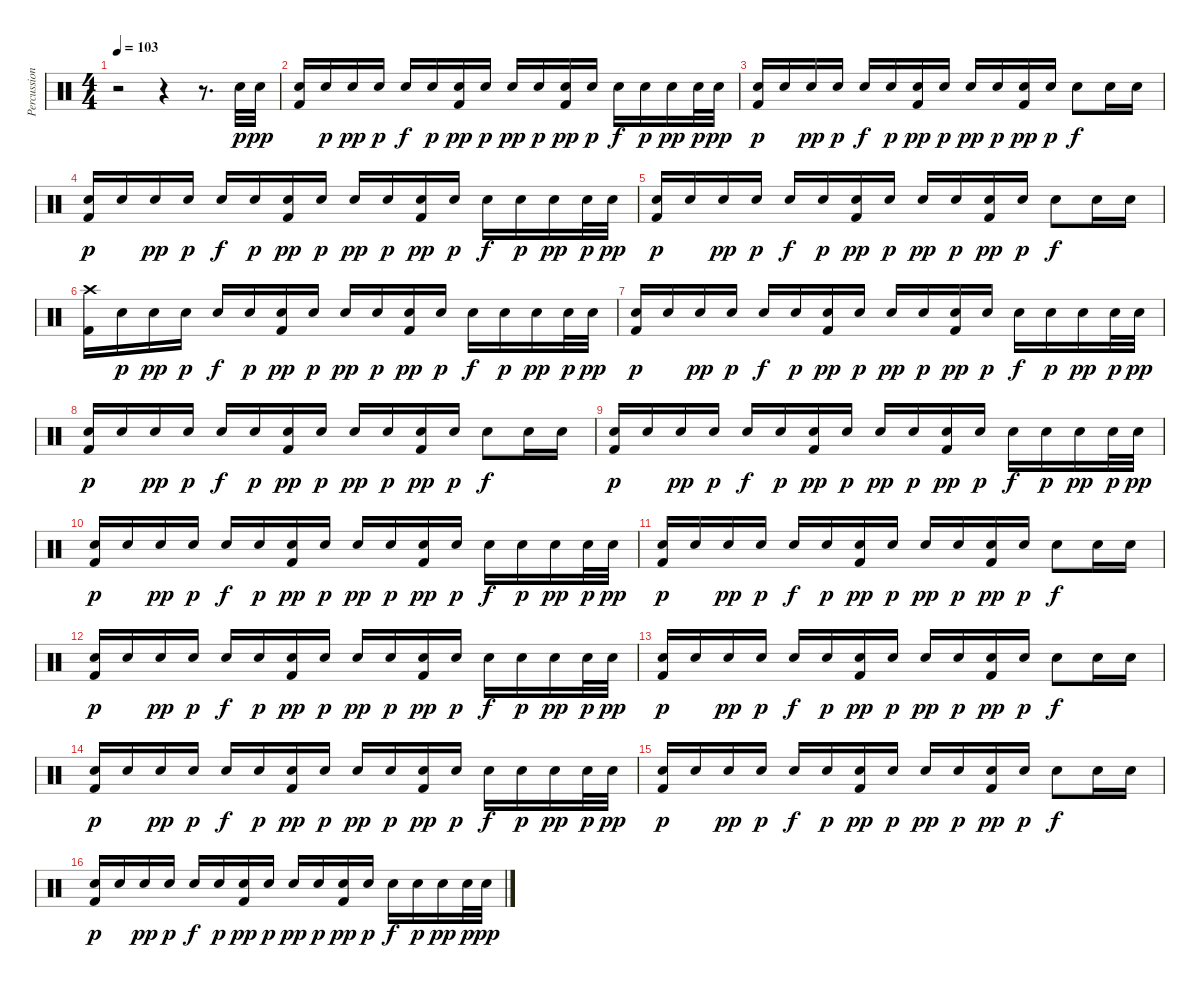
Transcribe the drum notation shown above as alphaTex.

\track ("Percussion" "Percussion") {instrument percussion}
\staff {score}
\articulation defaults
\ts (4 4)
\tempo 103
\clef neutral
\ks c
r.2{dy p} r.4 r.8{d} "Electric Snare (hit)".32 "Electric Snare (hit)".32{dy pp} |
("Electric Snare (hit)" "Kick (hit) 2").16 "Electric Snare (hit)".16{dy p} "Electric Snare (hit)".16{dy pp} "Electric Snare (hit)".16{dy p} "Electric Snare (hit)".16{dy f} "Electric Snare (hit)".16{dy p} ("Electric Snare (hit)" "Kick (hit) 2").16{dy pp} "Electric Snare (hit)".16{dy p} "Electric Snare (hit)".16{dy pp} "Electric Snare (hit)".16{dy p} ("Electric Snare (hit)" "Kick (hit) 2").16{dy pp} "Electric Snare (hit)".16{dy p} "Electric Snare (hit)".16{dy f} "Electric Snare (hit)".16{dy p} "Electric Snare (hit)".16{dy pp} "Electric Snare (hit)".32{dy p} "Electric Snare (hit)".32{dy pp} |
("Electric Snare (hit)" "Kick (hit) 2").16{dy p} "Electric Snare (hit)".16 "Electric Snare (hit)".16{dy pp} "Electric Snare (hit)".16{dy p} "Electric Snare (hit)".16{dy f} "Electric Snare (hit)".16{dy p} ("Electric Snare (hit)" "Kick (hit) 2").16{dy pp} "Electric Snare (hit)".16{dy p} "Electric Snare (hit)".16{dy pp} "Electric Snare (hit)".16{dy p} ("Electric Snare (hit)" "Kick (hit) 2").16{dy pp} "Electric Snare (hit)".16{dy p} "Electric Snare (hit)".8{dy f} "Electric Snare (hit)".16 "Electric Snare (hit)".16 |
("Electric Snare (hit)" "Kick (hit) 2").16{dy p} "Electric Snare (hit)".16 "Electric Snare (hit)".16{dy pp} "Electric Snare (hit)".16{dy p} "Electric Snare (hit)".16{dy f} "Electric Snare (hit)".16{dy p} ("Electric Snare (hit)" "Kick (hit) 2").16{dy pp} "Electric Snare (hit)".16{dy p} "Electric Snare (hit)".16{dy pp} "Electric Snare (hit)".16{dy p} ("Electric Snare (hit)" "Kick (hit) 2").16{dy pp} "Electric Snare (hit)".16{dy p} "Electric Snare (hit)".16{dy f} "Electric Snare (hit)".16{dy p} "Electric Snare (hit)".16{dy pp} "Electric Snare (hit)".32{dy p} "Electric Snare (hit)".32{dy pp} |
("Electric Snare (hit)" "Kick (hit) 2").16{dy p} "Electric Snare (hit)".16 "Electric Snare (hit)".16{dy pp} "Electric Snare (hit)".16{dy p} "Electric Snare (hit)".16{dy f} "Electric Snare (hit)".16{dy p} ("Electric Snare (hit)" "Kick (hit) 2").16{dy pp} "Electric Snare (hit)".16{dy p} "Electric Snare (hit)".16{dy pp} "Electric Snare (hit)".16{dy p} ("Electric Snare (hit)" "Kick (hit) 2").16{dy pp} "Electric Snare (hit)".16{dy p} "Electric Snare (hit)".8{dy f} "Electric Snare (hit)".16 "Electric Snare (hit)".16 |
("Crash high (hit)" "Kick (hit) 2").16 "Electric Snare (hit)".16{dy p} "Electric Snare (hit)".16{dy pp} "Electric Snare (hit)".16{dy p} "Electric Snare (hit)".16{dy f} "Electric Snare (hit)".16{dy p} ("Electric Snare (hit)" "Kick (hit) 2").16{dy pp} "Electric Snare (hit)".16{dy p} "Electric Snare (hit)".16{dy pp} "Electric Snare (hit)".16{dy p} ("Electric Snare (hit)" "Kick (hit) 2").16{dy pp} "Electric Snare (hit)".16{dy p} "Electric Snare (hit)".16{dy f} "Electric Snare (hit)".16{dy p} "Electric Snare (hit)".16{dy pp} "Electric Snare (hit)".32{dy p} "Electric Snare (hit)".32{dy pp} |
("Electric Snare (hit)" "Kick (hit) 2").16{dy p} "Electric Snare (hit)".16 "Electric Snare (hit)".16{dy pp} "Electric Snare (hit)".16{dy p} "Electric Snare (hit)".16{dy f} "Electric Snare (hit)".16{dy p} ("Electric Snare (hit)" "Kick (hit) 2").16{dy pp} "Electric Snare (hit)".16{dy p} "Electric Snare (hit)".16{dy pp} "Electric Snare (hit)".16{dy p} ("Electric Snare (hit)" "Kick (hit) 2").16{dy pp} "Electric Snare (hit)".16{dy p} "Electric Snare (hit)".16{dy f} "Electric Snare (hit)".16{dy p} "Electric Snare (hit)".16{dy pp} "Electric Snare (hit)".32{dy p} "Electric Snare (hit)".32{dy pp} |
("Electric Snare (hit)" "Kick (hit) 2").16{dy p} "Electric Snare (hit)".16 "Electric Snare (hit)".16{dy pp} "Electric Snare (hit)".16{dy p} "Electric Snare (hit)".16{dy f} "Electric Snare (hit)".16{dy p} ("Electric Snare (hit)" "Kick (hit) 2").16{dy pp} "Electric Snare (hit)".16{dy p} "Electric Snare (hit)".16{dy pp} "Electric Snare (hit)".16{dy p} ("Electric Snare (hit)" "Kick (hit) 2").16{dy pp} "Electric Snare (hit)".16{dy p} "Electric Snare (hit)".8{dy f} "Electric Snare (hit)".16 "Electric Snare (hit)".16 |
("Electric Snare (hit)" "Kick (hit) 2").16{dy p} "Electric Snare (hit)".16 "Electric Snare (hit)".16{dy pp} "Electric Snare (hit)".16{dy p} "Electric Snare (hit)".16{dy f} "Electric Snare (hit)".16{dy p} ("Electric Snare (hit)" "Kick (hit) 2").16{dy pp} "Electric Snare (hit)".16{dy p} "Electric Snare (hit)".16{dy pp} "Electric Snare (hit)".16{dy p} ("Electric Snare (hit)" "Kick (hit) 2").16{dy pp} "Electric Snare (hit)".16{dy p} "Electric Snare (hit)".16{dy f} "Electric Snare (hit)".16{dy p} "Electric Snare (hit)".16{dy pp} "Electric Snare (hit)".32{dy p} "Electric Snare (hit)".32{dy pp} |
("Electric Snare (hit)" "Kick (hit) 2").16{dy p} "Electric Snare (hit)".16 "Electric Snare (hit)".16{dy pp} "Electric Snare (hit)".16{dy p} "Electric Snare (hit)".16{dy f} "Electric Snare (hit)".16{dy p} ("Electric Snare (hit)" "Kick (hit) 2").16{dy pp} "Electric Snare (hit)".16{dy p} "Electric Snare (hit)".16{dy pp} "Electric Snare (hit)".16{dy p} ("Electric Snare (hit)" "Kick (hit) 2").16{dy pp} "Electric Snare (hit)".16{dy p} "Electric Snare (hit)".16{dy f} "Electric Snare (hit)".16{dy p} "Electric Snare (hit)".16{dy pp} "Electric Snare (hit)".32{dy p} "Electric Snare (hit)".32{dy pp} |
("Electric Snare (hit)" "Kick (hit) 2").16{dy p} "Electric Snare (hit)".16 "Electric Snare (hit)".16{dy pp} "Electric Snare (hit)".16{dy p} "Electric Snare (hit)".16{dy f} "Electric Snare (hit)".16{dy p} ("Electric Snare (hit)" "Kick (hit) 2").16{dy pp} "Electric Snare (hit)".16{dy p} "Electric Snare (hit)".16{dy pp} "Electric Snare (hit)".16{dy p} ("Electric Snare (hit)" "Kick (hit) 2").16{dy pp} "Electric Snare (hit)".16{dy p} "Electric Snare (hit)".8{dy f} "Electric Snare (hit)".16 "Electric Snare (hit)".16 |
("Electric Snare (hit)" "Kick (hit) 2").16{dy p} "Electric Snare (hit)".16 "Electric Snare (hit)".16{dy pp} "Electric Snare (hit)".16{dy p} "Electric Snare (hit)".16{dy f} "Electric Snare (hit)".16{dy p} ("Electric Snare (hit)" "Kick (hit) 2").16{dy pp} "Electric Snare (hit)".16{dy p} "Electric Snare (hit)".16{dy pp} "Electric Snare (hit)".16{dy p} ("Electric Snare (hit)" "Kick (hit) 2").16{dy pp} "Electric Snare (hit)".16{dy p} "Electric Snare (hit)".16{dy f} "Electric Snare (hit)".16{dy p} "Electric Snare (hit)".16{dy pp} "Electric Snare (hit)".32{dy p} "Electric Snare (hit)".32{dy pp} |
("Electric Snare (hit)" "Kick (hit) 2").16{dy p} "Electric Snare (hit)".16 "Electric Snare (hit)".16{dy pp} "Electric Snare (hit)".16{dy p} "Electric Snare (hit)".16{dy f} "Electric Snare (hit)".16{dy p} ("Electric Snare (hit)" "Kick (hit) 2").16{dy pp} "Electric Snare (hit)".16{dy p} "Electric Snare (hit)".16{dy pp} "Electric Snare (hit)".16{dy p} ("Electric Snare (hit)" "Kick (hit) 2").16{dy pp} "Electric Snare (hit)".16{dy p} "Electric Snare (hit)".8{dy f} "Electric Snare (hit)".16 "Electric Snare (hit)".16 |
("Electric Snare (hit)" "Kick (hit) 2").16{dy p} "Electric Snare (hit)".16 "Electric Snare (hit)".16{dy pp} "Electric Snare (hit)".16{dy p} "Electric Snare (hit)".16{dy f} "Electric Snare (hit)".16{dy p} ("Electric Snare (hit)" "Kick (hit) 2").16{dy pp} "Electric Snare (hit)".16{dy p} "Electric Snare (hit)".16{dy pp} "Electric Snare (hit)".16{dy p} ("Electric Snare (hit)" "Kick (hit) 2").16{dy pp} "Electric Snare (hit)".16{dy p} "Electric Snare (hit)".16{dy f} "Electric Snare (hit)".16{dy p} "Electric Snare (hit)".16{dy pp} "Electric Snare (hit)".32{dy p} "Electric Snare (hit)".32{dy pp} |
("Electric Snare (hit)" "Kick (hit) 2").16{dy p} "Electric Snare (hit)".16 "Electric Snare (hit)".16{dy pp} "Electric Snare (hit)".16{dy p} "Electric Snare (hit)".16{dy f} "Electric Snare (hit)".16{dy p} ("Electric Snare (hit)" "Kick (hit) 2").16{dy pp} "Electric Snare (hit)".16{dy p} "Electric Snare (hit)".16{dy pp} "Electric Snare (hit)".16{dy p} ("Electric Snare (hit)" "Kick (hit) 2").16{dy pp} "Electric Snare (hit)".16{dy p} "Electric Snare (hit)".8{dy f} "Electric Snare (hit)".16 "Electric Snare (hit)".16 |
("Electric Snare (hit)" "Kick (hit) 2").16{dy p} "Electric Snare (hit)".16 "Electric Snare (hit)".16{dy pp} "Electric Snare (hit)".16{dy p} "Electric Snare (hit)".16{dy f} "Electric Snare (hit)".16{dy p} ("Electric Snare (hit)" "Kick (hit) 2").16{dy pp} "Electric Snare (hit)".16{dy p} "Electric Snare (hit)".16{dy pp} "Electric Snare (hit)".16{dy p} ("Electric Snare (hit)" "Kick (hit) 2").16{dy pp} "Electric Snare (hit)".16{dy p} "Electric Snare (hit)".16{dy f} "Electric Snare (hit)".16{dy p} "Electric Snare (hit)".16{dy pp} "Electric Snare (hit)".32{dy p} "Electric Snare (hit)".32{dy pp}
